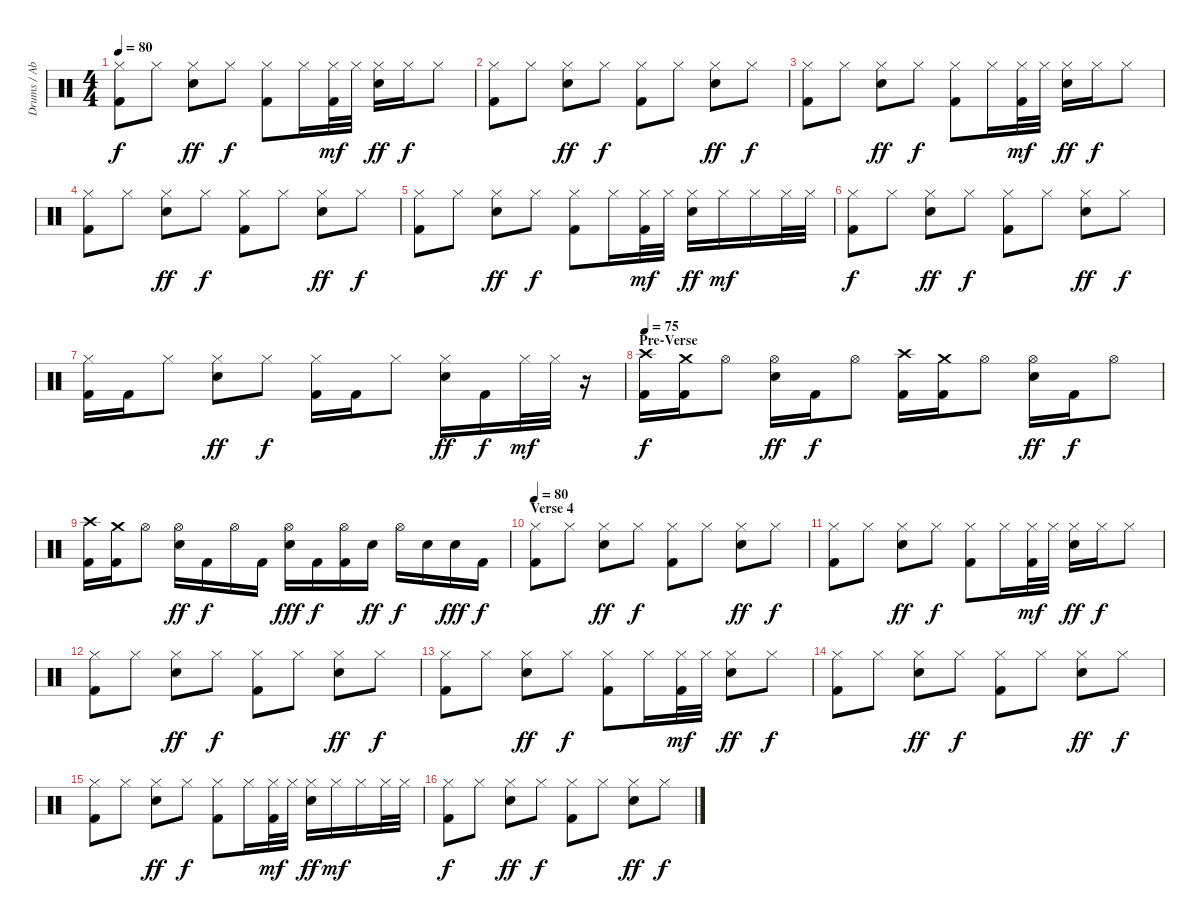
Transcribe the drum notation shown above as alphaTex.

\track ("Drums / Abe Cunningham" "Drums / Ab") {instrument percussion}
\staff {score}
\articulation defaults
\ts (4 4)
\tempo 80
\clef neutral
\ks c
("Hi-Hat (closed)" "Kick (hit) 2").8{dy f} "Hi-Hat (closed)".8 ("Hi-Hat (closed)" "Electric Snare (hit)").8{dy ff} "Hi-Hat (closed)".8{dy f} ("Hi-Hat (closed)" "Kick (hit) 2").8 "Hi-Hat (closed)".16 ("Hi-Hat (closed)" "Kick (hit) 2").32{dy mf} "Hi-Hat (closed)".32 ("Hi-Hat (closed)" "Electric Snare (hit)").16{dy ff} "Hi-Hat (closed)".16{dy f} "Hi-Hat (closed)".8 |
("Hi-Hat (closed)" "Kick (hit) 2").8 "Hi-Hat (closed)".8 ("Hi-Hat (closed)" "Electric Snare (hit)").8{dy ff} "Hi-Hat (closed)".8{dy f} ("Hi-Hat (closed)" "Kick (hit) 2").8 "Hi-Hat (closed)".8 ("Hi-Hat (closed)" "Electric Snare (hit)").8{dy ff} "Hi-Hat (closed)".8{dy f} |
("Hi-Hat (closed)" "Kick (hit) 2").8 "Hi-Hat (closed)".8 ("Hi-Hat (closed)" "Electric Snare (hit)").8{dy ff} "Hi-Hat (closed)".8{dy f} ("Hi-Hat (closed)" "Kick (hit) 2").8 "Hi-Hat (closed)".16 ("Hi-Hat (closed)" "Kick (hit) 2").32{dy mf} "Hi-Hat (closed)".32 ("Hi-Hat (closed)" "Electric Snare (hit)").16{dy ff} "Hi-Hat (closed)".16{dy f} "Hi-Hat (closed)".8 |
("Hi-Hat (closed)" "Kick (hit) 2").8 "Hi-Hat (closed)".8 ("Hi-Hat (closed)" "Electric Snare (hit)").8{dy ff} "Hi-Hat (closed)".8{dy f} ("Hi-Hat (closed)" "Kick (hit) 2").8 "Hi-Hat (closed)".8 ("Hi-Hat (closed)" "Electric Snare (hit)").8{dy ff} "Hi-Hat (closed)".8{dy f} |
("Hi-Hat (closed)" "Kick (hit) 2").8 "Hi-Hat (closed)".8 ("Hi-Hat (closed)" "Electric Snare (hit)").8{dy ff} "Hi-Hat (closed)".8{dy f} ("Hi-Hat (closed)" "Kick (hit) 2").8 "Hi-Hat (closed)".16 ("Hi-Hat (closed)" "Kick (hit) 2").32{dy mf} "Hi-Hat (closed)".32 ("Hi-Hat (closed)" "Electric Snare (hit)").16{dy ff} "Hi-Hat (closed)".16{dy mf} "Hi-Hat (closed)".16 "Hi-Hat (closed)".32 "Hi-Hat (closed)".32 |
("Hi-Hat (closed)" "Kick (hit) 2").8{dy f} "Hi-Hat (closed)".8 ("Hi-Hat (closed)" "Electric Snare (hit)").8{dy ff} "Hi-Hat (closed)".8{dy f} ("Hi-Hat (closed)" "Kick (hit) 2").8 "Hi-Hat (closed)".8 ("Hi-Hat (closed)" "Electric Snare (hit)").8{dy ff} "Hi-Hat (closed)".8{dy f} |
("Hi-Hat (closed)" "Kick (hit) 2").16 "Kick (hit) 2".16 "Hi-Hat (closed)".8 ("Hi-Hat (closed)" "Electric Snare (hit)").8{dy ff} "Hi-Hat (closed)".8{dy f} ("Hi-Hat (closed)" "Kick (hit) 2").16 "Kick (hit) 2".16 "Hi-Hat (closed)".8 ("Hi-Hat (closed)" "Electric Snare (hit)").16{dy ff} "Kick (hit) 2".16{dy f} "Hi-Hat (closed)".32{dy mf} "Hi-Hat (closed)".32 r.16 |
\section ("" "Pre-Verse")
\tempo 75
("Crash high (hit)" "Kick (hit) 2").16{dy f} ("Crash medium (hit)" "Kick (hit) 2").16 "Hi-Hat (open)".8 ("Hi-Hat (open)" "Electric Snare (hit)").16{dy ff} "Kick (hit) 2".16{dy f} "Hi-Hat (open)".8 ("Crash high (hit)" "Kick (hit) 2").16 ("Crash medium (hit)" "Kick (hit) 2").16 "Hi-Hat (open)".8 ("Hi-Hat (open)" "Electric Snare (hit)").16{dy ff} "Kick (hit) 2".16{dy f} "Hi-Hat (open)".8 |
("Crash high (hit)" "Kick (hit) 2").16 ("Crash medium (hit)" "Kick (hit) 2").16 "Hi-Hat (open)".8 ("Hi-Hat (open)" "Electric Snare (hit)").16{dy ff} "Kick (hit) 2".16{dy f} "Hi-Hat (open)".16 "Kick (hit) 2".16 ("Hi-Hat (open)" "Electric Snare (hit)").16{dy fff} "Kick (hit) 2".16{dy f} ("Hi-Hat (open)" "Kick (hit) 2").16 "Electric Snare (hit)".16{dy ff} "Hi-Hat (open)".16{dy f} "Electric Snare (hit)".16 "Electric Snare (hit)".16{dy fff} "Kick (hit) 2".16{dy f} |
\section ("" "Verse 4")
\tempo 80
("Hi-Hat (closed)" "Kick (hit) 2").8 "Hi-Hat (closed)".8 ("Hi-Hat (closed)" "Electric Snare (hit)").8{dy ff} "Hi-Hat (closed)".8{dy f} ("Hi-Hat (closed)" "Kick (hit) 2").8 "Hi-Hat (closed)".8 ("Hi-Hat (closed)" "Electric Snare (hit)").8{dy ff} "Hi-Hat (closed)".8{dy f} |
("Hi-Hat (closed)" "Kick (hit) 2").8 "Hi-Hat (closed)".8 ("Hi-Hat (closed)" "Electric Snare (hit)").8{dy ff} "Hi-Hat (closed)".8{dy f} ("Hi-Hat (closed)" "Kick (hit) 2").8 "Hi-Hat (closed)".16 ("Hi-Hat (closed)" "Kick (hit) 2").32{dy mf} "Hi-Hat (closed)".32 ("Hi-Hat (closed)" "Electric Snare (hit)").16{dy ff} "Hi-Hat (closed)".16{dy f} "Hi-Hat (closed)".8 |
("Hi-Hat (closed)" "Kick (hit) 2").8 "Hi-Hat (closed)".8 ("Hi-Hat (closed)" "Electric Snare (hit)").8{dy ff} "Hi-Hat (closed)".8{dy f} ("Hi-Hat (closed)" "Kick (hit) 2").8 "Hi-Hat (closed)".8 ("Hi-Hat (closed)" "Electric Snare (hit)").8{dy ff} "Hi-Hat (closed)".8{dy f} |
("Hi-Hat (closed)" "Kick (hit) 2").8 "Hi-Hat (closed)".8 ("Hi-Hat (closed)" "Electric Snare (hit)").8{dy ff} "Hi-Hat (closed)".8{dy f} ("Hi-Hat (closed)" "Kick (hit) 2").8 "Hi-Hat (closed)".16 ("Hi-Hat (closed)" "Kick (hit) 2").32{dy mf} "Hi-Hat (closed)".32 ("Hi-Hat (closed)" "Electric Snare (hit)").8{dy ff} "Hi-Hat (closed)".8{dy f} |
("Hi-Hat (closed)" "Kick (hit) 2").8 "Hi-Hat (closed)".8 ("Hi-Hat (closed)" "Electric Snare (hit)").8{dy ff} "Hi-Hat (closed)".8{dy f} ("Hi-Hat (closed)" "Kick (hit) 2").8 "Hi-Hat (closed)".8 ("Hi-Hat (closed)" "Electric Snare (hit)").8{dy ff} "Hi-Hat (closed)".8{dy f} |
("Hi-Hat (closed)" "Kick (hit) 2").8 "Hi-Hat (closed)".8 ("Hi-Hat (closed)" "Electric Snare (hit)").8{dy ff} "Hi-Hat (closed)".8{dy f} ("Hi-Hat (closed)" "Kick (hit) 2").8 "Hi-Hat (closed)".16 ("Hi-Hat (closed)" "Kick (hit) 2").32{dy mf} "Hi-Hat (closed)".32 ("Hi-Hat (closed)" "Electric Snare (hit)").16{dy ff} "Hi-Hat (closed)".16{dy mf} "Hi-Hat (closed)".16 "Hi-Hat (closed)".32 "Hi-Hat (closed)".32 |
("Hi-Hat (closed)" "Kick (hit) 2").8{dy f} "Hi-Hat (closed)".8 ("Hi-Hat (closed)" "Electric Snare (hit)").8{dy ff} "Hi-Hat (closed)".8{dy f} ("Hi-Hat (closed)" "Kick (hit) 2").8 "Hi-Hat (closed)".8 ("Hi-Hat (closed)" "Electric Snare (hit)").8{dy ff} "Hi-Hat (closed)".8{dy f}
